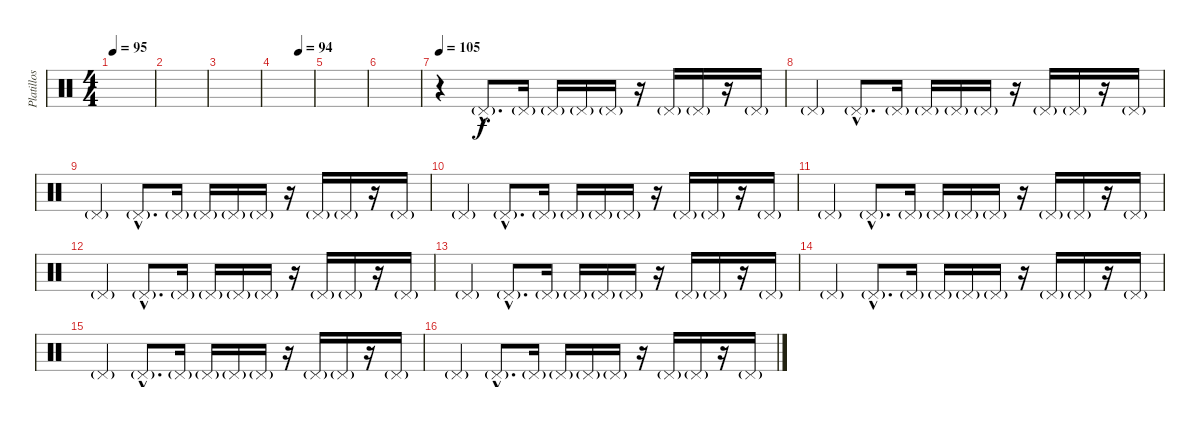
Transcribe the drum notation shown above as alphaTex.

\track ("Platillos" "Platillos") {instrument percussion}
\staff {score}
\articulation defaults
\ts (4 4)
\tempo 95
\clef neutral
\ks c
|
|
|
\tempo (94 0.625)
|
|
|
\tempo 105
r.4 "Pedal Hi-Hat (hit)"{g hac}.8{d} "Pedal Hi-Hat (hit)"{g}.16 "Pedal Hi-Hat (hit)"{g}.16 "Pedal Hi-Hat (hit)"{g}.16 "Pedal Hi-Hat (hit)"{g}.16 r.16 "Pedal Hi-Hat (hit)"{g}.16 "Pedal Hi-Hat (hit)"{g}.16 r.16 "Pedal Hi-Hat (hit)"{g}.16 |
"Pedal Hi-Hat (hit)"{g}.4 "Pedal Hi-Hat (hit)"{g hac}.8{d} "Pedal Hi-Hat (hit)"{g}.16 "Pedal Hi-Hat (hit)"{g}.16 "Pedal Hi-Hat (hit)"{g}.16 "Pedal Hi-Hat (hit)"{g}.16 r.16 "Pedal Hi-Hat (hit)"{g}.16 "Pedal Hi-Hat (hit)"{g}.16 r.16 "Pedal Hi-Hat (hit)"{g}.16 |
"Pedal Hi-Hat (hit)"{g}.4 "Pedal Hi-Hat (hit)"{g hac}.8{d} "Pedal Hi-Hat (hit)"{g}.16 "Pedal Hi-Hat (hit)"{g}.16 "Pedal Hi-Hat (hit)"{g}.16 "Pedal Hi-Hat (hit)"{g}.16 r.16 "Pedal Hi-Hat (hit)"{g}.16 "Pedal Hi-Hat (hit)"{g}.16 r.16 "Pedal Hi-Hat (hit)"{g}.16 |
"Pedal Hi-Hat (hit)"{g}.4 "Pedal Hi-Hat (hit)"{g hac}.8{d} "Pedal Hi-Hat (hit)"{g}.16 "Pedal Hi-Hat (hit)"{g}.16 "Pedal Hi-Hat (hit)"{g}.16 "Pedal Hi-Hat (hit)"{g}.16 r.16 "Pedal Hi-Hat (hit)"{g}.16 "Pedal Hi-Hat (hit)"{g}.16 r.16 "Pedal Hi-Hat (hit)"{g}.16 |
"Pedal Hi-Hat (hit)"{g}.4 "Pedal Hi-Hat (hit)"{g hac}.8{d} "Pedal Hi-Hat (hit)"{g}.16 "Pedal Hi-Hat (hit)"{g}.16 "Pedal Hi-Hat (hit)"{g}.16 "Pedal Hi-Hat (hit)"{g}.16 r.16 "Pedal Hi-Hat (hit)"{g}.16 "Pedal Hi-Hat (hit)"{g}.16 r.16 "Pedal Hi-Hat (hit)"{g}.16 |
"Pedal Hi-Hat (hit)"{g}.4 "Pedal Hi-Hat (hit)"{g hac}.8{d} "Pedal Hi-Hat (hit)"{g}.16 "Pedal Hi-Hat (hit)"{g}.16 "Pedal Hi-Hat (hit)"{g}.16 "Pedal Hi-Hat (hit)"{g}.16 r.16 "Pedal Hi-Hat (hit)"{g}.16 "Pedal Hi-Hat (hit)"{g}.16 r.16 "Pedal Hi-Hat (hit)"{g}.16 |
"Pedal Hi-Hat (hit)"{g}.4 "Pedal Hi-Hat (hit)"{g hac}.8{d} "Pedal Hi-Hat (hit)"{g}.16 "Pedal Hi-Hat (hit)"{g}.16 "Pedal Hi-Hat (hit)"{g}.16 "Pedal Hi-Hat (hit)"{g}.16 r.16 "Pedal Hi-Hat (hit)"{g}.16 "Pedal Hi-Hat (hit)"{g}.16 r.16 "Pedal Hi-Hat (hit)"{g}.16 |
"Pedal Hi-Hat (hit)"{g}.4 "Pedal Hi-Hat (hit)"{g hac}.8{d} "Pedal Hi-Hat (hit)"{g}.16 "Pedal Hi-Hat (hit)"{g}.16 "Pedal Hi-Hat (hit)"{g}.16 "Pedal Hi-Hat (hit)"{g}.16 r.16 "Pedal Hi-Hat (hit)"{g}.16 "Pedal Hi-Hat (hit)"{g}.16 r.16 "Pedal Hi-Hat (hit)"{g}.16 |
"Pedal Hi-Hat (hit)"{g}.4 "Pedal Hi-Hat (hit)"{g hac}.8{d} "Pedal Hi-Hat (hit)"{g}.16 "Pedal Hi-Hat (hit)"{g}.16 "Pedal Hi-Hat (hit)"{g}.16 "Pedal Hi-Hat (hit)"{g}.16 r.16 "Pedal Hi-Hat (hit)"{g}.16 "Pedal Hi-Hat (hit)"{g}.16 r.16 "Pedal Hi-Hat (hit)"{g}.16 |
"Pedal Hi-Hat (hit)"{g}.4 "Pedal Hi-Hat (hit)"{g hac}.8{d} "Pedal Hi-Hat (hit)"{g}.16 "Pedal Hi-Hat (hit)"{g}.16 "Pedal Hi-Hat (hit)"{g}.16 "Pedal Hi-Hat (hit)"{g}.16 r.16 "Pedal Hi-Hat (hit)"{g}.16 "Pedal Hi-Hat (hit)"{g}.16 r.16 "Pedal Hi-Hat (hit)"{g}.16
